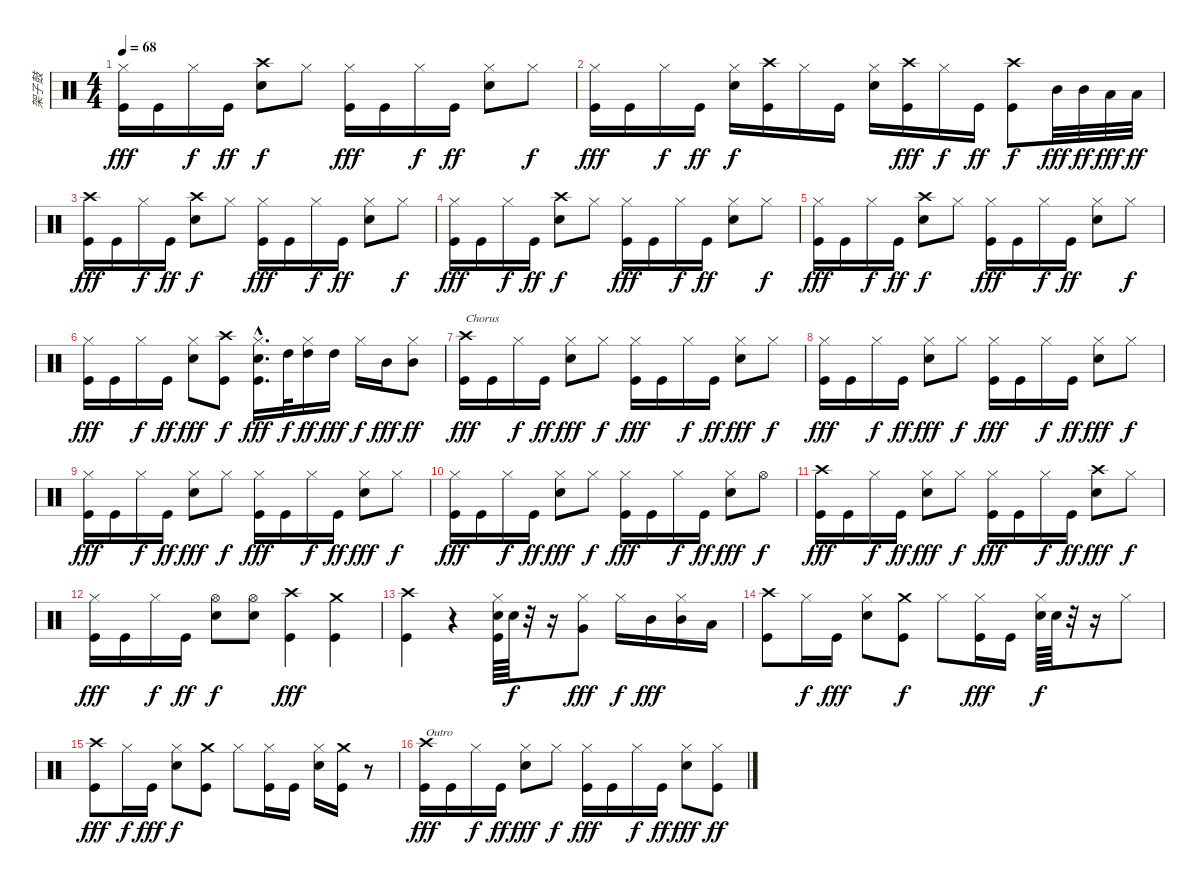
\track ("架子鼓" "架子鼓") {instrument percussion}
\staff {score}
\articulation defaults
\ts (4 4)
\tempo 68
\clef neutral
\ks c
("Hi-Hat (closed)" "Kick (hit)").16{dy fff} "Kick (hit)".16 "Hi-Hat (closed)".16{dy f} "Kick (hit)".16{dy ff} ("Crash high (hit)" "Snare (hit) 2").8{dy f} "Hi-Hat (closed)".8 ("Hi-Hat (closed)" "Kick (hit)").16{dy fff} "Kick (hit)".16 "Hi-Hat (closed)".16{dy f} "Kick (hit)".16{dy ff} ("Hi-Hat (closed)" "Snare (hit) 2").8 "Hi-Hat (closed)".8{dy f} |
("Hi-Hat (closed)" "Kick (hit)").16{dy fff} "Kick (hit)".16 "Hi-Hat (closed)".16{dy f} "Kick (hit)".16{dy ff} ("Hi-Hat (closed)" "Snare (hit) 2").16{dy f} ("Crash high (hit)" "Kick (hit)").16 "Hi-Hat (closed)".16 "Kick (hit)".16 ("Hi-Hat (closed)" "Snare (hit) 2").16 ("Crash high (hit)" "Kick (hit)").16{dy fff} "Hi-Hat (closed)".16{dy f} "Kick (hit)".16{dy ff} ("Crash high (hit)" "Kick (hit)").8{dy f} "Mid Tom (hit)".32{dy fff} "Mid Tom (hit)".32{dy ff} "Low Tom (hit)".32{dy fff} "Low Tom (hit)".32{dy ff} |
("Crash high (hit)" "Kick (hit)").16{dy fff} "Kick (hit)".16 "Hi-Hat (closed)".16{dy f} "Kick (hit)".16{dy ff} ("Crash high (hit)" "Snare (hit) 2").8{dy f} "Hi-Hat (closed)".8 ("Hi-Hat (closed)" "Kick (hit)").16{dy fff} "Kick (hit)".16 "Hi-Hat (closed)".16{dy f} "Kick (hit)".16{dy ff} ("Hi-Hat (closed)" "Snare (hit) 2").8 "Hi-Hat (closed)".8{dy f} |
("Hi-Hat (closed)" "Kick (hit)").16{dy fff} "Kick (hit)".16 "Hi-Hat (closed)".16{dy f} "Kick (hit)".16{dy ff} ("Crash high (hit)" "Snare (hit) 2").8{dy f} "Hi-Hat (closed)".8 ("Hi-Hat (closed)" "Kick (hit)").16{dy fff} "Kick (hit)".16 "Hi-Hat (closed)".16{dy f} "Kick (hit)".16{dy ff} ("Hi-Hat (closed)" "Snare (hit) 2").8 "Hi-Hat (closed)".8{dy f} |
("Hi-Hat (closed)" "Kick (hit)").16{dy fff} "Kick (hit)".16 "Hi-Hat (closed)".16{dy f} "Kick (hit)".16{dy ff} ("Crash high (hit)" "Snare (hit) 2").8{dy f} "Hi-Hat (closed)".8 ("Hi-Hat (closed)" "Kick (hit)").16{dy fff} "Kick (hit)".16 "Hi-Hat (closed)".16{dy f} "Kick (hit)".16{dy ff} ("Hi-Hat (closed)" "Snare (hit) 2").8 "Hi-Hat (closed)".8{dy f} |
("Hi-Hat (closed)" "Kick (hit)").16{dy fff} "Kick (hit)".16 "Hi-Hat (closed)".16{dy f} "Kick (hit)".16{dy ff} ("Hi-Hat (closed)" "Snare (hit) 2").8{dy fff} ("Crash high (hit)" "Kick (hit)").8{dy f} ("Hi-Hat (closed)"{hac} "Snare (hit) 2"{hac} "Kick (hit)"{hac}).16{d dy fff} "High Tom (hit)".32{dy f} ("Hi-Hat (closed)" "High Tom (hit)").16{dy ff} "High Tom (hit)".16{dy fff} "Hi-Hat (closed)".16{dy f} "Mid Tom (hit)".16{dy fff} ("Hi-Hat (closed)" "Mid Tom (hit)").8{dy ff} |
("Crash high (hit)" "Kick (hit)").16{txt "Chorus" dy fff} "Kick (hit)".16 "Hi-Hat (closed)".16{dy f} "Kick (hit)".16{dy ff} ("Hi-Hat (closed)" "Snare (hit) 2").8{dy fff} "Hi-Hat (closed)".8{dy f} ("Hi-Hat (closed)" "Kick (hit)").16{dy fff} "Kick (hit)".16 "Hi-Hat (closed)".16{dy f} "Kick (hit)".16{dy ff} ("Hi-Hat (closed)" "Snare (hit) 2").8{dy fff} "Hi-Hat (closed)".8{dy f} |
("Hi-Hat (closed)" "Kick (hit)").16{dy fff} "Kick (hit)".16 "Hi-Hat (closed)".16{dy f} "Kick (hit)".16{dy ff} ("Hi-Hat (closed)" "Snare (hit) 2").8{dy fff} "Hi-Hat (closed)".8{dy f} ("Hi-Hat (closed)" "Kick (hit)").16{dy fff} "Kick (hit)".16 "Hi-Hat (closed)".16{dy f} "Kick (hit)".16{dy ff} ("Hi-Hat (closed)" "Snare (hit) 2").8{dy fff} "Hi-Hat (closed)".8{dy f} |
("Hi-Hat (closed)" "Kick (hit)").16{dy fff} "Kick (hit)".16 "Hi-Hat (closed)".16{dy f} "Kick (hit)".16{dy ff} ("Hi-Hat (closed)" "Snare (hit) 2").8{dy fff} "Hi-Hat (closed)".8{dy f} ("Hi-Hat (closed)" "Kick (hit)").16{dy fff} "Kick (hit)".16 "Hi-Hat (closed)".16{dy f} "Kick (hit)".16{dy ff} ("Hi-Hat (closed)" "Snare (hit) 2").8{dy fff} "Hi-Hat (closed)".8{dy f} |
("Hi-Hat (closed)" "Kick (hit)").16{dy fff} "Kick (hit)".16 "Hi-Hat (closed)".16{dy f} "Kick (hit)".16{dy ff} ("Hi-Hat (closed)" "Snare (hit) 2").8{dy fff} "Hi-Hat (closed)".8{dy f} ("Hi-Hat (closed)" "Kick (hit)").16{dy fff} "Kick (hit)".16 "Hi-Hat (closed)".16{dy f} "Kick (hit)".16{dy ff} ("Hi-Hat (closed)" "Snare (hit) 2").8{dy fff} "Hi-Hat (open)".8{dy f} |
("Crash high (hit)" "Kick (hit)").16{dy fff} "Kick (hit)".16 "Hi-Hat (closed)".16{dy f} "Kick (hit)".16{dy ff} ("Hi-Hat (closed)" "Snare (hit) 2").8{dy fff} "Hi-Hat (closed)".8{dy f} ("Hi-Hat (closed)" "Kick (hit)").16{dy fff} "Kick (hit)".16 "Hi-Hat (closed)".16{dy f} "Kick (hit)".16{dy ff} ("Crash high (hit)" "Snare (hit) 2").8{dy fff} "Hi-Hat (closed)".8{dy f} |
("Hi-Hat (closed)" "Kick (hit)").16{dy fff} "Kick (hit)".16 "Hi-Hat (closed)".16{dy f} "Kick (hit)".16{dy ff} ("Hi-Hat (open)" "Snare (hit) 2").8{dy f} ("Hi-Hat (open)" "Snare (hit) 2").8 ("Crash high (hit)" "Kick (hit)").4{dy fff} ("Crash medium (hit)" "Kick (hit)").4 |
("Crash high (hit)" "Kick (hit)").4 r.4 ("Hi-Hat (closed)" "Snare (hit) 2" "Kick (hit)").64 "Snare (hit) 2".64{dy f} r.32 r.16 ("Hi-Hat (closed)" "Very Low Tom (hit)").8{dy fff} "Hi-Hat (closed)".16{dy f} "Mid Tom (hit)".16{dy fff} ("Hi-Hat (closed)" "Mid Tom (hit)").16 "Low Tom (hit)".16 |
("Crash high (hit)" "Kick (hit)").8 "Hi-Hat (closed)".16{dy f} "Kick (hit)".16{dy fff} ("Hi-Hat (closed)" "Snare (hit) 2").8 ("Crash medium (hit)" "Kick (hit)").8{dy f} "Hi-Hat (closed)".8 ("Hi-Hat (closed)" "Kick (hit)").16{dy fff} "Kick (hit)".16 ("Hi-Hat (closed)" "Snare (hit) 2").64{dy f} "Snare (hit) 2".64 r.32 r.16 "Hi-Hat (closed)".8 |
("Crash high (hit)" "Kick (hit)").8{dy fff} "Hi-Hat (closed)".16{dy f} "Kick (hit)".16{dy fff} ("Hi-Hat (closed)" "Snare (hit) 2").8{dy f} ("Crash medium (hit)" "Kick (hit)").8 "Hi-Hat (closed)".8 ("Hi-Hat (closed)" "Kick (hit)").16 "Kick (hit)".16 ("Hi-Hat (closed)" "Snare (hit) 2").16 ("Crash medium (hit)" "Kick (hit)").16 r.8 |
("Crash high (hit)" "Kick (hit)").16{txt "Outro" dy fff} "Kick (hit)".16 "Hi-Hat (closed)".16{dy f} "Kick (hit)".16{dy ff} ("Hi-Hat (closed)" "Snare (hit) 2").8{dy fff} "Hi-Hat (closed)".8{dy f} ("Hi-Hat (closed)" "Kick (hit)").16{dy fff} "Kick (hit)".16 "Hi-Hat (closed)".16{dy f} "Kick (hit)".16{dy ff} ("Hi-Hat (closed)" "Snare (hit) 2").8{dy fff} ("Hi-Hat (closed)" "Kick (hit)").8{dy ff}
